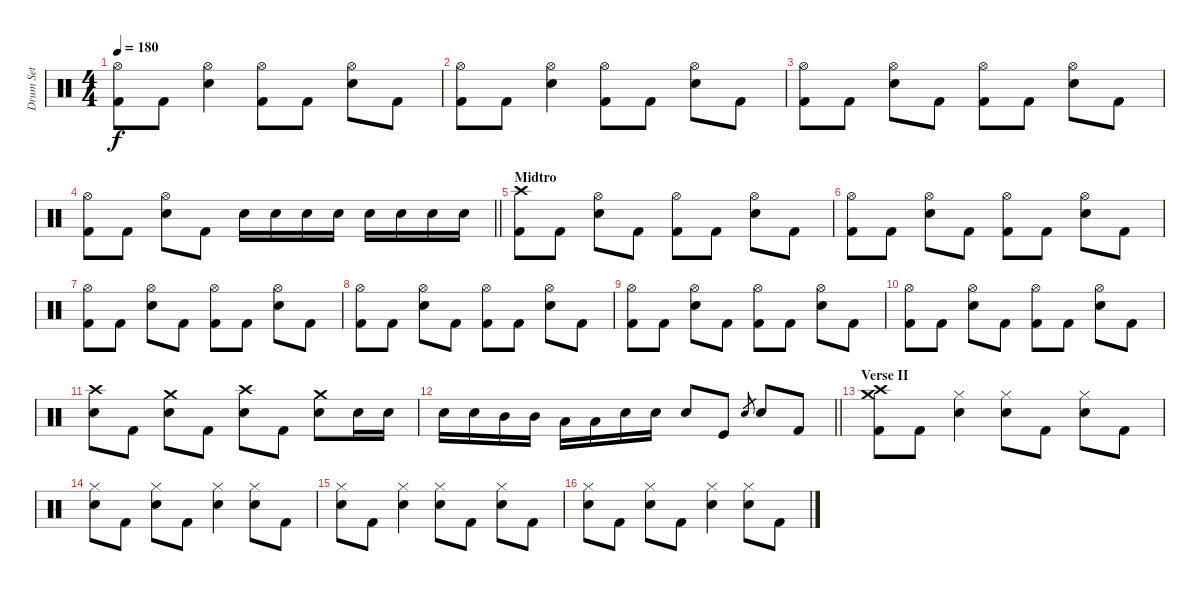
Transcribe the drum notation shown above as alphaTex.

\track ("Drum Set" "Drum Set") {instrument percussion}
\staff {score}
\articulation defaults
\ts (4 4)
\tempo 180
\clef neutral
\ks c
("Hi-Hat (open)" "Kick (hit) 2").8{dy f} "Kick (hit) 2".8 ("Hi-Hat (open)" "Snare (hit) 2").4 ("Hi-Hat (open)" "Kick (hit) 2").8 "Kick (hit) 2".8 ("Hi-Hat (open)" "Snare (hit) 2").8 "Kick (hit) 2".8 |
("Hi-Hat (open)" "Kick (hit) 2").8 "Kick (hit) 2".8 ("Hi-Hat (open)" "Snare (hit) 2").4 ("Hi-Hat (open)" "Kick (hit) 2").8 "Kick (hit) 2".8 ("Hi-Hat (open)" "Snare (hit) 2").8 "Kick (hit) 2".8 |
("Hi-Hat (open)" "Kick (hit) 2").8 "Kick (hit) 2".8 ("Hi-Hat (open)" "Snare (hit) 2").8 "Kick (hit) 2".8 ("Hi-Hat (open)" "Kick (hit) 2").8 "Kick (hit) 2".8 ("Hi-Hat (open)" "Snare (hit) 2").8 "Kick (hit) 2".8 |
\barLineRight lightlight
("Hi-Hat (open)" "Kick (hit) 2").8 "Kick (hit) 2".8 ("Hi-Hat (open)" "Snare (hit) 2").8 "Kick (hit) 2".8 "Snare (hit) 2".16 "Snare (hit) 2".16 "Snare (hit) 2".16 "Snare (hit) 2".16 "Snare (hit) 2".16 "Snare (hit) 2".16 "Snare (hit) 2".16 "Snare (hit) 2".16 |
\section ("" "Midtro")
("Crash high (hit)" "Kick (hit) 2").8 "Kick (hit) 2".8 ("Hi-Hat (open)" "Snare (hit) 2").8 "Kick (hit) 2".8 ("Hi-Hat (open)" "Kick (hit) 2").8 "Kick (hit) 2".8 ("Hi-Hat (open)" "Snare (hit) 2").8 "Kick (hit) 2".8 |
("Hi-Hat (open)" "Kick (hit) 2").8 "Kick (hit) 2".8 ("Hi-Hat (open)" "Snare (hit) 2").8 "Kick (hit) 2".8 ("Hi-Hat (open)" "Kick (hit) 2").8 "Kick (hit) 2".8 ("Hi-Hat (open)" "Snare (hit) 2").8 "Kick (hit) 2".8 |
("Hi-Hat (open)" "Kick (hit) 2").8 "Kick (hit) 2".8 ("Hi-Hat (open)" "Snare (hit) 2").8 "Kick (hit) 2".8 ("Hi-Hat (open)" "Kick (hit) 2").8 "Kick (hit) 2".8 ("Hi-Hat (open)" "Snare (hit) 2").8 "Kick (hit) 2".8 |
("Hi-Hat (open)" "Kick (hit) 2").8 "Kick (hit) 2".8 ("Hi-Hat (open)" "Snare (hit) 2").8 "Kick (hit) 2".8 ("Hi-Hat (open)" "Kick (hit) 2").8 "Kick (hit) 2".8 ("Hi-Hat (open)" "Snare (hit) 2").8 "Kick (hit) 2".8 |
("Hi-Hat (open)" "Kick (hit) 2").8 "Kick (hit) 2".8 ("Hi-Hat (open)" "Snare (hit) 2").8 "Kick (hit) 2".8 ("Hi-Hat (open)" "Kick (hit) 2").8 "Kick (hit) 2".8 ("Hi-Hat (open)" "Snare (hit) 2").8 "Kick (hit) 2".8 |
("Hi-Hat (open)" "Kick (hit) 2").8 "Kick (hit) 2".8 ("Hi-Hat (open)" "Snare (hit) 2").8 "Kick (hit) 2".8 ("Hi-Hat (open)" "Kick (hit) 2").8 "Kick (hit) 2".8 ("Hi-Hat (open)" "Snare (hit) 2").8 "Kick (hit) 2".8 |
("Crash high (hit)" "Snare (hit) 2").8 "Kick (hit) 2".8 ("Crash medium (hit)" "Snare (hit) 2").8 "Kick (hit) 2".8 ("Crash high (hit)" "Snare (hit) 2").8 "Kick (hit) 2".8 ("Crash medium (hit)" "Snare (hit) 2").8 "Snare (hit) 2".16 "Snare (hit) 2".16 |
\barLineRight lightlight "Snare (hit) 2".16 "Snare (hit) 2".16 "Mid Tom (hit)".16 "Mid Tom (hit)".16 "Low Tom (hit)".16 "Low Tom (hit)".16 "Snare (hit) 2".16 "Snare (hit) 2".16 "Snare (hit) 2".8 "Kick (hit)".8 "Snare (hit) 2".8{gr} "Snare (hit) 2".8 "Kick (hit) 2".8
|
\section ("" "Verse II")
("Crash high (hit)" "Crash medium (hit)" "Kick (hit) 2").8 "Kick (hit) 2".8 ("Hi-Hat (closed)" "Snare (hit) 2").4 ("Hi-Hat (closed)" "Snare (hit) 2").8 "Kick (hit) 2".8 ("Hi-Hat (closed)" "Snare (hit) 2").8 "Kick (hit) 2".8 |
("Hi-Hat (closed)" "Snare (hit) 2").8 "Kick (hit) 2".8 ("Hi-Hat (closed)" "Snare (hit) 2").8 "Kick (hit) 2".8 ("Hi-Hat (closed)" "Snare (hit) 2").4 ("Hi-Hat (closed)" "Snare (hit) 2").8 "Kick (hit) 2".8 |
("Hi-Hat (closed)" "Snare (hit) 2").8 "Kick (hit) 2".8 ("Hi-Hat (closed)" "Snare (hit) 2").4 ("Hi-Hat (closed)" "Snare (hit) 2").8 "Kick (hit) 2".8 ("Hi-Hat (closed)" "Snare (hit) 2").8 "Kick (hit) 2".8 |
("Hi-Hat (closed)" "Snare (hit) 2").8 "Kick (hit) 2".8 ("Hi-Hat (closed)" "Snare (hit) 2").8 "Kick (hit) 2".8 ("Hi-Hat (closed)" "Snare (hit) 2").4 ("Hi-Hat (closed)" "Snare (hit) 2").8 "Kick (hit) 2".8
